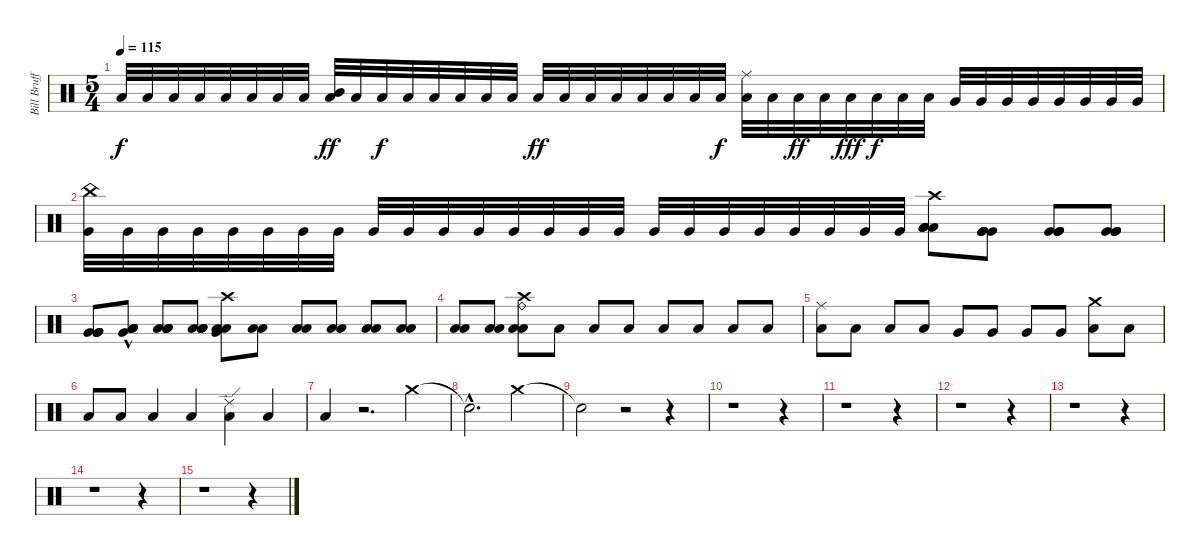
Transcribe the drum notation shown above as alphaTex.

\track ("Bill Brufford Drums" "Bill Bruff") {instrument percussion}
\staff {score}
\articulation defaults
\ts (5 4)
\tempo 115
\clef neutral
\ks c "Low Floor Tom (hit)".32{dy f} "Low Floor Tom (hit)".32 "Low Floor Tom (hit)".32 "Low Floor Tom (hit)".32 "Low Floor Tom (hit)".32 "Low Floor Tom (hit)".32 "Low Floor Tom (hit)".32 "Low Floor Tom (hit)".32
("Low Floor Tom (hit)" "Mid Tom (hit)").32{dy ff} "Low Floor Tom (hit)".32 "Low Floor Tom (hit)".32{dy f} "Low Floor Tom (hit)".32 "Low Floor Tom (hit)".32 "Low Floor Tom (hit)".32 "Low Floor Tom (hit)".32 "Low Floor Tom (hit)".32 "Low Floor Tom (hit)".32{dy ff} "Low Floor Tom (hit)".32 "Low Floor Tom (hit)".32 "Low Floor Tom (hit)".32 "Low Floor Tom (hit)".32 "Low Floor Tom (hit)".32 "Low Floor Tom (hit)".32 "Low Floor Tom (hit)".32{dy f} ("Low Floor Tom (hit)" "Ride (middle)").32 "Low Floor Tom (hit)".32 "Low Floor Tom (hit)".32{dy ff} "Low Floor Tom (hit)".32 "Low Floor Tom (hit)".32{dy fff} "Low Floor Tom (hit)".32{dy f} "Low Floor Tom (hit)".32 "Low Floor Tom (hit)".32 "Very Low Tom (hit)".32 "Very Low Tom (hit)".32 "Very Low Tom (hit)".32 "Very Low Tom (hit)".32 "Very Low Tom (hit)".32 "Very Low Tom (hit)".32 "Very Low Tom (hit)".32 "Very Low Tom (hit)".32 |
("Very Low Tom (hit)" "China (hit)").32 "Very Low Tom (hit)".32 "Very Low Tom (hit)".32 "Very Low Tom (hit)".32 "Very Low Tom (hit)".32 "Very Low Tom (hit)".32 "Very Low Tom (hit)".32 "Very Low Tom (hit)".32 "Very Low Tom (hit)".32 "Very Low Tom (hit)".32 "Very Low Tom (hit)".32 "Very Low Tom (hit)".32 "Very Low Tom (hit)".32 "Very Low Tom (hit)".32 "Very Low Tom (hit)".32 "Very Low Tom (hit)".32 "Very Low Tom (hit)".32 "Very Low Tom (hit)".32 "Very Low Tom (hit)".32 "Very Low Tom (hit)".32 "Very Low Tom (hit)".32 "Very Low Tom (hit)".32 "Very Low Tom (hit)".32 "Very Low Tom (hit)".32 ("Low Floor Tom (hit)" "Low Floor Tom (hit)" "Crash high (hit)" "Low Floor Tom (hit)" "Low Floor Tom (hit)").8 ("Very Low Tom (hit)" "Very Low Tom (hit)" "Very Low Tom (hit)" "Very Low Tom (hit)").8 ("Very Low Tom (hit)" "Very Low Tom (hit)" "Very Low Tom (hit)" "Very Low Tom (hit)").8 ("Very Low Tom (hit)" "Very Low Tom (hit)" "Very Low Tom (hit)" "Very Low Tom (hit)").8 |
("Very Low Tom (hit)" "Very Low Tom (hit)" "Very Low Tom (hit)" "Very Low Tom (hit)").8 ("Very Low Tom (hit)"{hac} "Low Tom (hit)" "Low Tom (hit)" "Low Tom (hit)").8 ("Low Tom (hit)" "Low Tom (hit)" "Low Tom (hit)" "Low Tom (hit)").8 ("Low Tom (hit)" "Low Tom (hit)" "Low Tom (hit)" "Low Tom (hit)").8 ("Very Low Tom (hit)" "Low Floor Tom (hit)" "Crash high (hit)" "Low Floor Tom (hit)").8 ("Low Floor Tom (hit)" "Low Floor Tom (hit)").8 ("Low Floor Tom (hit)" "Low Floor Tom (hit)").8 ("Low Floor Tom (hit)" "Low Floor Tom (hit)").8 ("Low Floor Tom (hit)" "Low Floor Tom (hit)").8 ("Low Floor Tom (hit)" "Low Floor Tom (hit)").8 |
("Low Floor Tom (hit)" "Low Floor Tom (hit)").8 ("Low Floor Tom (hit)" "Low Floor Tom (hit)").8 ("Low Floor Tom (hit)" "Ride (bell)" "Crash high (hit)" "Low Floor Tom (hit)").8 "Low Floor Tom (hit)".8 "Low Floor Tom (hit)".8 "Low Floor Tom (hit)".8 "Low Floor Tom (hit)".8 "Low Floor Tom (hit)".8 "Low Floor Tom (hit)".8 "Low Floor Tom (hit)".8 |
("Ride (middle)" "Low Tom (hit)").8 "Low Tom (hit)".8 "Low Tom (hit)".8 "Low Tom (hit)".8 "Very Low Tom (hit)".8 "Very Low Tom (hit)".8 "Very Low Tom (hit)".8 "Very Low Tom (hit)".8 ("Crash medium (hit)" "Low Floor Tom (hit)").8 "Low Floor Tom (hit)".8 |
"Low Floor Tom (hit)".8 "Low Floor Tom (hit)".8 "Low Floor Tom (hit)".4 "Low Floor Tom (hit)".4 ("Ride (edge) 2" "Low Floor Tom (hit)").4 "Low Floor Tom (hit)".4 |
"Low Floor Tom (hit)".4 r.2{d} "Crash medium (hit)".4 |
"Snare (hit)"{hac t}.2{d} "Crash medium (hit)".2 |
"Snare (hit)"{t}.2 r.2 r.4 |
r.1 r.4 |
r.1 r.4 |
r.1 r.4 |
r.1 r.4 |
r.1 r.4 |
r.1 r.4
